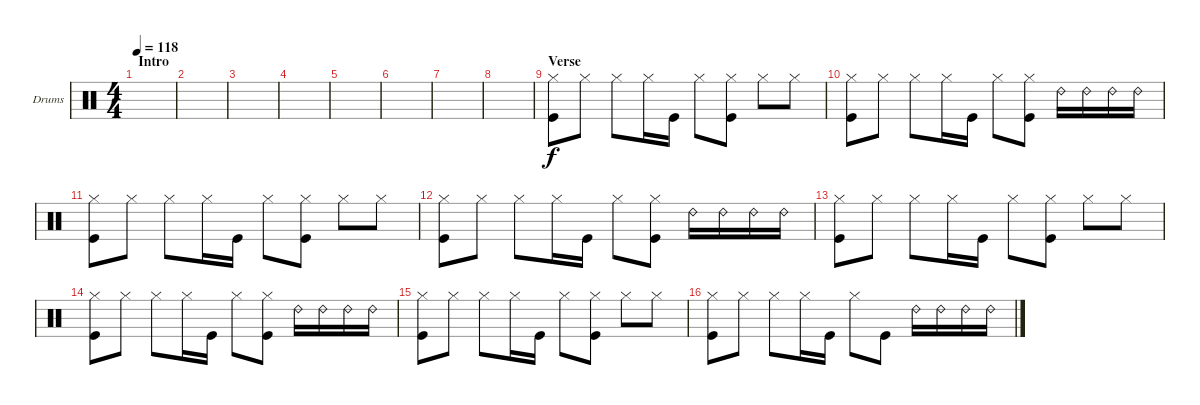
\defaultSystemsLayout 4
\bracketExtendMode groupsimilarinstruments
\firstSystemTrackNameOrientation horizontal
\otherSystemsTrackNameOrientation horizontal
\track ("Drumkit" "Drums") {instrument percussion}
\staff {score}
\articulation defaults
\ts (4 4)
\section ("" "Intro")
\tempo 118
\clef neutral
\ks c
|
|
|
|
|
|
|
|
\section ("" "Verse")
("Hi-Hat (closed)" "Kick (hit)").8 "Hi-Hat (closed)".8 "Hi-Hat (closed)".8 "Hi-Hat (closed)".16 "Kick (hit)".16 "Hi-Hat (closed)".8 ("Kick (hit)" "Hi-Hat (closed)").8 "Hi-Hat (closed)".8 "Hi-Hat (closed)".8 |
("Hi-Hat (closed)" "Kick (hit)").8 "Hi-Hat (closed)".8 "Hi-Hat (closed)".8 "Hi-Hat (closed)".16 "Kick (hit)".16 "Hi-Hat (closed)".8 ("Kick (hit)" "Hi-Hat (closed)").8 "Ride (bell) 2".16 "Ride (bell) 2".16 "Ride (bell) 2".16 "Ride (bell) 2".16 |
("Hi-Hat (closed)" "Kick (hit)").8 "Hi-Hat (closed)".8 "Hi-Hat (closed)".8 "Hi-Hat (closed)".16 "Kick (hit)".16 "Hi-Hat (closed)".8 ("Kick (hit)" "Hi-Hat (closed)").8 "Hi-Hat (closed)".8 "Hi-Hat (closed)".8 |
("Hi-Hat (closed)" "Kick (hit)").8 "Hi-Hat (closed)".8 "Hi-Hat (closed)".8 "Hi-Hat (closed)".16 "Kick (hit)".16 "Hi-Hat (closed)".8 ("Kick (hit)" "Hi-Hat (closed)").8 "Ride (bell) 2".16 "Ride (bell) 2".16 "Ride (bell) 2".16 "Ride (bell) 2".16 |
("Hi-Hat (closed)" "Kick (hit)").8 "Hi-Hat (closed)".8 "Hi-Hat (closed)".8 "Hi-Hat (closed)".16 "Kick (hit)".16 "Hi-Hat (closed)".8 ("Kick (hit)" "Hi-Hat (closed)").8 "Hi-Hat (closed)".8 "Hi-Hat (closed)".8 |
("Hi-Hat (closed)" "Kick (hit)").8 "Hi-Hat (closed)".8 "Hi-Hat (closed)".8 "Hi-Hat (closed)".16 "Kick (hit)".16 "Hi-Hat (closed)".8 ("Kick (hit)" "Hi-Hat (closed)").8 "Ride (bell) 2".16 "Ride (bell) 2".16 "Ride (bell) 2".16 "Ride (bell) 2".16 |
("Hi-Hat (closed)" "Kick (hit)").8 "Hi-Hat (closed)".8 "Hi-Hat (closed)".8 "Hi-Hat (closed)".16 "Kick (hit)".16 "Hi-Hat (closed)".8 ("Kick (hit)" "Hi-Hat (closed)").8 "Hi-Hat (closed)".8 "Hi-Hat (closed)".8 |
("Hi-Hat (closed)" "Kick (hit)").8 "Hi-Hat (closed)".8 "Hi-Hat (closed)".8 "Hi-Hat (closed)".16 "Kick (hit)".16 "Hi-Hat (closed)".8 "Kick (hit)".8 "Ride (bell) 2".16 "Ride (bell) 2".16 "Ride (bell) 2".16 "Ride (bell) 2".16
